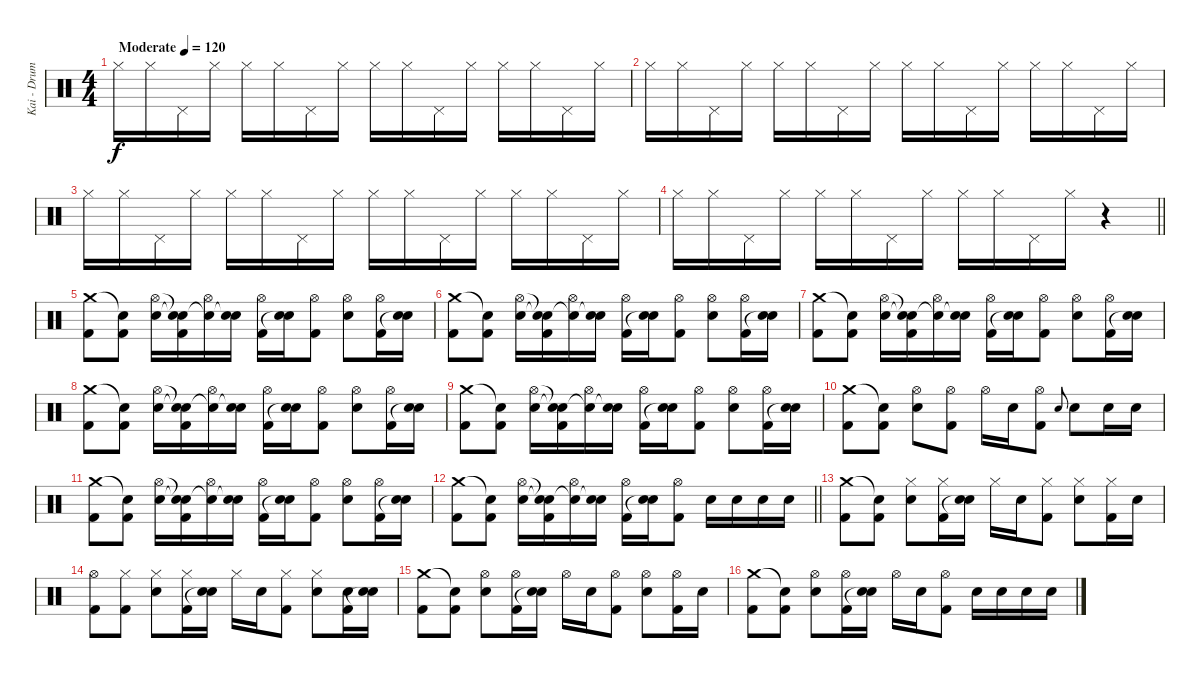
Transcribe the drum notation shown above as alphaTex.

\track ("Kai - Drums" "Kai - Drum") {instrument percussion}
\staff {score}
\articulation defaults
\ts (4 4)
\tempo (120 "Moderate")
\clef neutral
\ks c "Hi-Hat (closed)".16{dy f} "Hi-Hat (closed)".16 "Pedal Hi-Hat (hit)".16 "Hi-Hat (closed)".16 "Hi-Hat (closed)".16 "Hi-Hat (closed)".16 "Pedal Hi-Hat (hit)".16 "Hi-Hat (closed)".16 "Hi-Hat (closed)".16 "Hi-Hat (closed)".16 "Pedal Hi-Hat (hit)".16 "Hi-Hat (closed)".16 "Hi-Hat (closed)".16 "Hi-Hat (closed)".16 "Pedal Hi-Hat (hit)".16 "Hi-Hat (closed)".16
|
"Hi-Hat (closed)".16 "Hi-Hat (closed)".16 "Pedal Hi-Hat (hit)".16 "Hi-Hat (closed)".16 "Hi-Hat (closed)".16 "Hi-Hat (closed)".16 "Pedal Hi-Hat (hit)".16 "Hi-Hat (closed)".16 "Hi-Hat (closed)".16 "Hi-Hat (closed)".16 "Pedal Hi-Hat (hit)".16 "Hi-Hat (closed)".16 "Hi-Hat (closed)".16 "Hi-Hat (closed)".16 "Pedal Hi-Hat (hit)".16 "Hi-Hat (closed)".16 |
"Hi-Hat (closed)".16 "Hi-Hat (closed)".16 "Pedal Hi-Hat (hit)".16 "Hi-Hat (closed)".16 "Hi-Hat (closed)".16 "Hi-Hat (closed)".16 "Pedal Hi-Hat (hit)".16 "Hi-Hat (closed)".16 "Hi-Hat (closed)".16 "Hi-Hat (closed)".16 "Pedal Hi-Hat (hit)".16 "Hi-Hat (closed)".16 "Hi-Hat (closed)".16 "Hi-Hat (closed)".16 "Pedal Hi-Hat (hit)".16 "Hi-Hat (closed)".16 |
\barLineRight lightlight "Hi-Hat (closed)".16 "Hi-Hat (closed)".16 "Pedal Hi-Hat (hit)".16 "Hi-Hat (closed)".16 "Hi-Hat (closed)".16 "Hi-Hat (closed)".16 "Pedal Hi-Hat (hit)".16 "Hi-Hat (closed)".16 "Hi-Hat (closed)".16 "Hi-Hat (closed)".16 "Pedal Hi-Hat (hit)".16 "Hi-Hat (closed)".16
r.4 |
("Crash medium (hit)" "Kick (hit) 2").8 ("Snare (hit)"{t} "Kick (hit) 2").8 ("Hi-Hat (open)" "Snare (hit) 2").16 ("Snare (hit)"{t} "Snare (hit)"{t} "Kick (hit) 2").16 ("Hi-Hat (open)" "Snare (hit)"{t}).16 ("Snare (hit) 2" "Snare (hit)"{t}).16 ("Hi-Hat (open)" "Kick (hit) 2").16 ("Snare (hit) 2" "Snare (hit)"{t}).16 ("Hi-Hat (open)" "Kick (hit) 2").8 ("Hi-Hat (open)" "Snare (hit) 2").8 ("Hi-Hat (open)" "Kick (hit) 2").16 ("Snare (hit) 2" "Snare (hit)"{t}).16 |
("Crash medium (hit)" "Kick (hit) 2").8 ("Snare (hit)"{t} "Kick (hit) 2").8 ("Hi-Hat (open)" "Snare (hit) 2").16 ("Snare (hit)"{t} "Snare (hit)"{t} "Kick (hit) 2").16 ("Hi-Hat (open)" "Snare (hit)"{t}).16 ("Snare (hit) 2" "Snare (hit)"{t}).16 ("Hi-Hat (open)" "Kick (hit) 2").16 ("Snare (hit) 2" "Snare (hit)"{t}).16 ("Hi-Hat (open)" "Kick (hit) 2").8 ("Hi-Hat (open)" "Snare (hit) 2").8 ("Hi-Hat (open)" "Kick (hit) 2").16 ("Snare (hit) 2" "Snare (hit)"{t}).16 |
("Crash medium (hit)" "Kick (hit) 2").8 ("Snare (hit)"{t} "Kick (hit) 2").8 ("Hi-Hat (open)" "Snare (hit) 2").16 ("Snare (hit)"{t} "Snare (hit)"{t} "Kick (hit) 2").16 ("Hi-Hat (open)" "Snare (hit)"{t}).16 ("Snare (hit) 2" "Snare (hit)"{t}).16 ("Hi-Hat (open)" "Kick (hit) 2").16 ("Snare (hit) 2" "Snare (hit)"{t}).16 ("Hi-Hat (open)" "Kick (hit) 2").8 ("Hi-Hat (open)" "Snare (hit) 2").8 ("Hi-Hat (open)" "Kick (hit) 2").16 ("Snare (hit) 2" "Snare (hit)"{t}).16 |
("Crash medium (hit)" "Kick (hit) 2").8 ("Snare (hit)"{t} "Kick (hit) 2").8 ("Hi-Hat (open)" "Snare (hit) 2").16 ("Snare (hit)"{t} "Snare (hit)"{t} "Kick (hit) 2").16 ("Hi-Hat (open)" "Snare (hit)"{t}).16 ("Snare (hit) 2" "Snare (hit)"{t}).16 ("Hi-Hat (open)" "Kick (hit) 2").16 ("Snare (hit) 2" "Snare (hit)"{t}).16 ("Hi-Hat (open)" "Kick (hit) 2").8 ("Hi-Hat (open)" "Snare (hit) 2").8 ("Hi-Hat (open)" "Kick (hit) 2").16 ("Snare (hit) 2" "Snare (hit)"{t}).16 |
("Crash medium (hit)" "Kick (hit) 2").8 ("Snare (hit)"{t} "Kick (hit) 2").8 ("Hi-Hat (open)" "Snare (hit) 2").16 ("Snare (hit)"{t} "Snare (hit)"{t} "Kick (hit) 2").16 ("Hi-Hat (open)" "Snare (hit)"{t}).16 ("Snare (hit) 2" "Snare (hit)"{t}).16 ("Hi-Hat (open)" "Kick (hit) 2").16 ("Snare (hit) 2" "Snare (hit)"{t}).16 ("Hi-Hat (open)" "Kick (hit) 2").8 ("Hi-Hat (open)" "Snare (hit) 2").8 ("Hi-Hat (open)" "Kick (hit) 2").16 ("Snare (hit) 2" "Snare (hit)"{t}).16 |
("Crash medium (hit)" "Kick (hit) 2").8 ("Snare (hit)"{t} "Kick (hit) 2").8 ("Hi-Hat (open)" "Snare (hit) 2").8 ("Hi-Hat (open)" "Kick (hit) 2").8 "Hi-Hat (open)".16 "Snare (hit) 2".16 ("Hi-Hat (open)" "Kick (hit) 2").8 "Snare (hit) 2".8{gr onbeat} "Snare (hit) 2".8 "Snare (hit) 2".16 "Snare (hit) 2".16 |
("Crash medium (hit)" "Kick (hit) 2").8 ("Snare (hit)"{t} "Kick (hit) 2").8 ("Hi-Hat (open)" "Snare (hit) 2").16 ("Snare (hit)"{t} "Snare (hit)"{t} "Kick (hit) 2").16 ("Hi-Hat (open)" "Snare (hit)"{t}).16 ("Snare (hit) 2" "Snare (hit)"{t}).16 ("Hi-Hat (open)" "Kick (hit) 2").16 ("Snare (hit) 2" "Snare (hit)"{t}).16 ("Hi-Hat (open)" "Kick (hit) 2").8 ("Hi-Hat (open)" "Snare (hit) 2").8 ("Hi-Hat (open)" "Kick (hit) 2").16 ("Snare (hit) 2" "Snare (hit)"{t}).16 |
\barLineRight lightlight
("Crash medium (hit)" "Kick (hit) 2").8 ("Snare (hit)"{t} "Kick (hit) 2").8 ("Hi-Hat (open)" "Snare (hit) 2").16 ("Snare (hit)"{t} "Snare (hit)"{t} "Kick (hit) 2").16 ("Hi-Hat (open)" "Snare (hit)"{t}).16 ("Snare (hit) 2" "Snare (hit)"{t}).16 ("Hi-Hat (open)" "Kick (hit) 2").16 ("Snare (hit) 2" "Snare (hit)"{t}).16 ("Hi-Hat (open)" "Kick (hit) 2").8 "Snare (hit) 2".16 "Snare (hit) 2".16 "Snare (hit) 2".16 "Snare (hit) 2".16 |
("Crash medium (hit)" "Kick (hit) 2").8 ("Snare (hit)"{t} "Kick (hit) 2").8 ("Hi-Hat (closed)" "Snare (hit) 2").8 ("Hi-Hat (closed)" "Kick (hit) 2").16 ("Snare (hit) 2" "Snare (hit)"{t}).16 "Hi-Hat (closed)".16 "Snare (hit) 2".16 ("Hi-Hat (closed)" "Kick (hit) 2").8 ("Hi-Hat (closed)" "Snare (hit) 2").8 ("Hi-Hat (closed)" "Kick (hit) 2").16 "Snare (hit) 2".16 |
("Hi-Hat (open)" "Kick (hit) 2").8 ("Hi-Hat (closed)" "Kick (hit) 2").8 ("Hi-Hat (closed)" "Snare (hit) 2").8 ("Hi-Hat (closed)" "Kick (hit) 2").16 ("Snare (hit) 2" "Snare (hit)"{t}).16 "Hi-Hat (closed)".16 "Snare (hit) 2".16 ("Hi-Hat (closed)" "Kick (hit) 2").8 ("Hi-Hat (closed)" "Snare (hit) 2").8 ("Snare (hit) 2" "Kick (hit) 2").16 ("Snare (hit) 2" "Snare (hit)"{t}).16 |
("Crash medium (hit)" "Kick (hit) 2").8 ("Snare (hit)"{t} "Kick (hit) 2").8 ("Hi-Hat (open)" "Snare (hit) 2").8 ("Hi-Hat (open)" "Kick (hit) 2").16 ("Snare (hit) 2" "Snare (hit)"{t}).16 "Hi-Hat (open)".16 "Snare (hit) 2".16 ("Hi-Hat (open)" "Kick (hit) 2").8 ("Hi-Hat (open)" "Snare (hit) 2").8 ("Hi-Hat (open)" "Kick (hit) 2").16 "Snare (hit) 2".16 |
("Crash medium (hit)" "Kick (hit) 2").8 ("Snare (hit)"{t} "Kick (hit) 2").8 ("Hi-Hat (open)" "Snare (hit) 2").8 ("Hi-Hat (open)" "Kick (hit) 2").16 ("Snare (hit) 2" "Snare (hit)"{t}).16 "Hi-Hat (open)".16 "Snare (hit) 2".16 ("Hi-Hat (open)" "Kick (hit) 2").8 "Snare (hit) 2".16 "Snare (hit) 2".16 "Snare (hit) 2".16 "Snare (hit) 2".16
